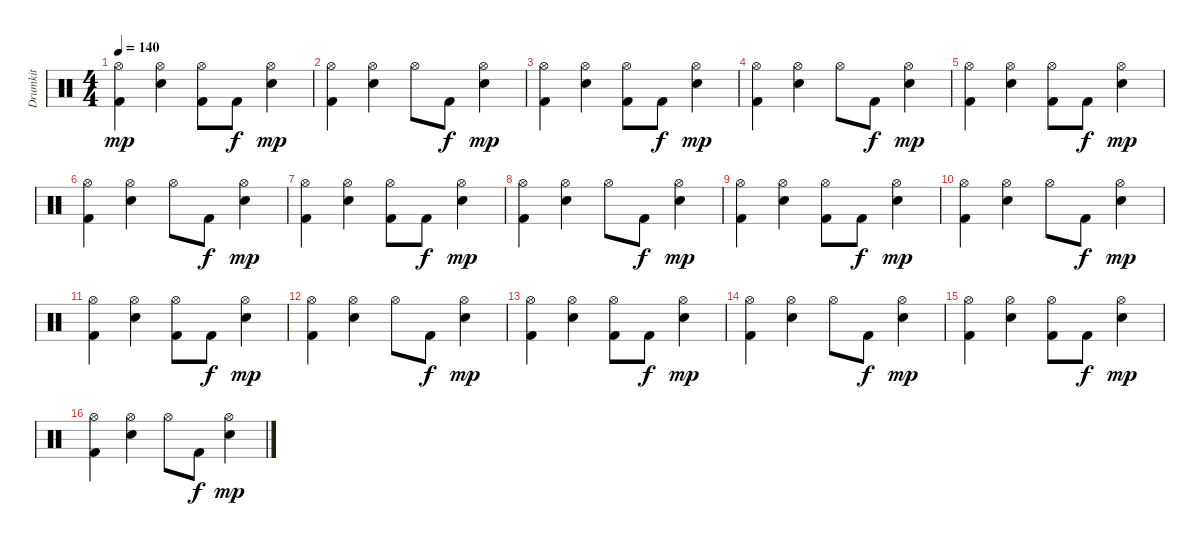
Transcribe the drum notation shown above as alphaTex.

\track ("Drumkit" "Drumkit") {instrument percussion}
\staff {score}
\articulation defaults
\ts (4 4)
\tempo 140
\clef neutral
\ks c
("Hi-Hat (open)" "Kick (hit) 2").4{dy mp} ("Hi-Hat (open)" "Snare (hit) 2").4 ("Hi-Hat (open)" "Kick (hit) 2").8 "Kick (hit) 2".8{dy f} ("Hi-Hat (open)" "Snare (hit) 2").4{dy mp} |
("Hi-Hat (open)" "Kick (hit) 2").4 ("Hi-Hat (open)" "Snare (hit) 2").4 "Hi-Hat (open)".8 "Kick (hit) 2".8{dy f} ("Hi-Hat (open)" "Snare (hit) 2").4{dy mp} |
("Hi-Hat (open)" "Kick (hit) 2").4 ("Hi-Hat (open)" "Snare (hit) 2").4 ("Hi-Hat (open)" "Kick (hit) 2").8 "Kick (hit) 2".8{dy f} ("Hi-Hat (open)" "Snare (hit) 2").4{dy mp} |
("Hi-Hat (open)" "Kick (hit) 2").4 ("Hi-Hat (open)" "Snare (hit) 2").4 "Hi-Hat (open)".8 "Kick (hit) 2".8{dy f} ("Hi-Hat (open)" "Snare (hit) 2").4{dy mp} |
("Hi-Hat (open)" "Kick (hit) 2").4 ("Hi-Hat (open)" "Snare (hit) 2").4 ("Hi-Hat (open)" "Kick (hit) 2").8 "Kick (hit) 2".8{dy f} ("Hi-Hat (open)" "Snare (hit) 2").4{dy mp} |
("Hi-Hat (open)" "Kick (hit) 2").4 ("Hi-Hat (open)" "Snare (hit) 2").4 "Hi-Hat (open)".8 "Kick (hit) 2".8{dy f} ("Hi-Hat (open)" "Snare (hit) 2").4{dy mp} |
("Hi-Hat (open)" "Kick (hit) 2").4 ("Hi-Hat (open)" "Snare (hit) 2").4 ("Hi-Hat (open)" "Kick (hit) 2").8 "Kick (hit) 2".8{dy f} ("Hi-Hat (open)" "Snare (hit) 2").4{dy mp} |
("Hi-Hat (open)" "Kick (hit) 2").4 ("Hi-Hat (open)" "Snare (hit) 2").4 "Hi-Hat (open)".8 "Kick (hit) 2".8{dy f} ("Hi-Hat (open)" "Snare (hit) 2").4{dy mp} |
("Hi-Hat (open)" "Kick (hit) 2").4 ("Hi-Hat (open)" "Snare (hit) 2").4 ("Hi-Hat (open)" "Kick (hit) 2").8 "Kick (hit) 2".8{dy f} ("Hi-Hat (open)" "Snare (hit) 2").4{dy mp} |
("Hi-Hat (open)" "Kick (hit) 2").4 ("Hi-Hat (open)" "Snare (hit) 2").4 "Hi-Hat (open)".8 "Kick (hit) 2".8{dy f} ("Hi-Hat (open)" "Snare (hit) 2").4{dy mp} |
("Hi-Hat (open)" "Kick (hit) 2").4 ("Hi-Hat (open)" "Snare (hit) 2").4 ("Hi-Hat (open)" "Kick (hit) 2").8 "Kick (hit) 2".8{dy f} ("Hi-Hat (open)" "Snare (hit) 2").4{dy mp} |
("Hi-Hat (open)" "Kick (hit) 2").4 ("Hi-Hat (open)" "Snare (hit) 2").4 "Hi-Hat (open)".8 "Kick (hit) 2".8{dy f} ("Hi-Hat (open)" "Snare (hit) 2").4{dy mp} |
("Hi-Hat (open)" "Kick (hit) 2").4 ("Hi-Hat (open)" "Snare (hit) 2").4 ("Hi-Hat (open)" "Kick (hit) 2").8 "Kick (hit) 2".8{dy f} ("Hi-Hat (open)" "Snare (hit) 2").4{dy mp} |
("Hi-Hat (open)" "Kick (hit) 2").4 ("Hi-Hat (open)" "Snare (hit) 2").4 "Hi-Hat (open)".8 "Kick (hit) 2".8{dy f} ("Hi-Hat (open)" "Snare (hit) 2").4{dy mp} |
("Hi-Hat (open)" "Kick (hit) 2").4 ("Hi-Hat (open)" "Snare (hit) 2").4 ("Hi-Hat (open)" "Kick (hit) 2").8 "Kick (hit) 2".8{dy f} ("Hi-Hat (open)" "Snare (hit) 2").4{dy mp} |
("Hi-Hat (open)" "Kick (hit) 2").4 ("Hi-Hat (open)" "Snare (hit) 2").4 "Hi-Hat (open)".8 "Kick (hit) 2".8{dy f} ("Hi-Hat (open)" "Snare (hit) 2").4{dy mp}
